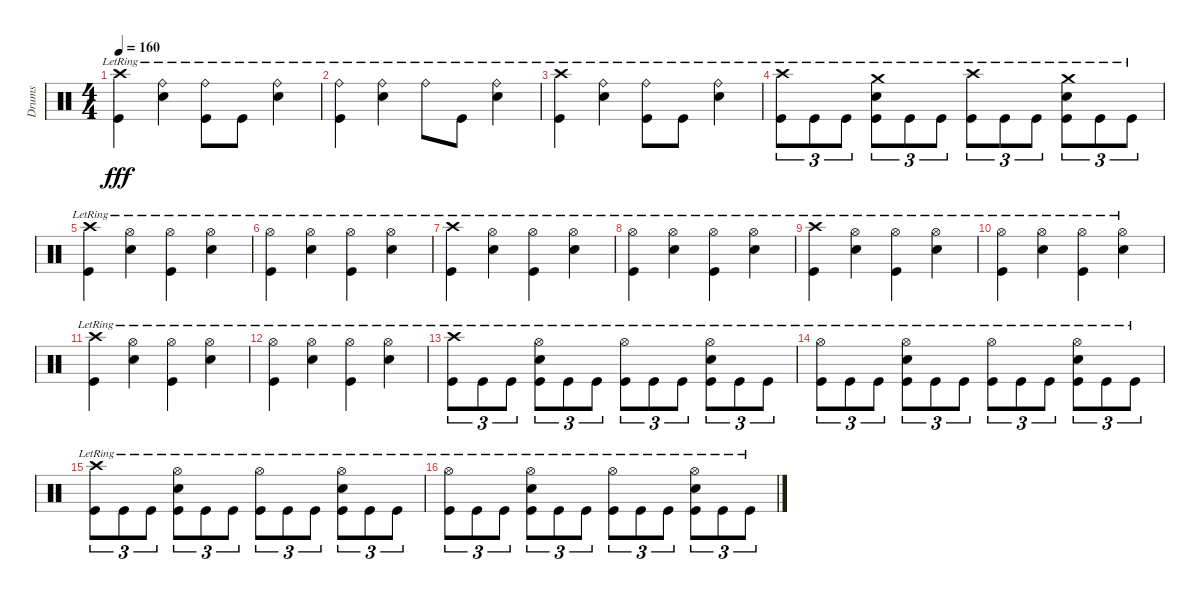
\track ("Drums" "Drums") {instrument percussion}
\staff {score}
\articulation defaults
\ts (4 4)
\tempo 160
\clef neutral
\ks c
("Crash high (hit)"{lr} "Kick (hit)"{lr}).4{dy fff} ("Ride (bell)"{lr} "Snare (hit) 2"{lr}).4 ("Ride (bell)"{lr} "Kick (hit)"{lr}).8 "Kick (hit)"{lr}.8 ("Ride (bell)"{lr} "Snare (hit) 2"{lr}).4 |
("Ride (bell)"{lr} "Kick (hit)"{lr}).4 ("Ride (bell)"{lr} "Snare (hit) 2"{lr}).4 "Ride (bell)"{lr}.8 "Kick (hit)"{lr}.8 ("Ride (bell)"{lr} "Snare (hit) 2"{lr}).4 |
("Crash high (hit)"{lr} "Kick (hit)"{lr}).4 ("Ride (bell)"{lr} "Snare (hit) 2"{lr}).4 ("Ride (bell)"{lr} "Kick (hit)"{lr}).8 "Kick (hit)"{lr}.8 ("Ride (bell)"{lr} "Snare (hit) 2"{lr}).4 |
("Crash high (hit)"{lr} "Kick (hit)"{lr}).8{tu (3 2)} "Kick (hit)"{lr}.8{tu (3 2)} "Kick (hit)"{lr}.8{tu (3 2)} ("Crash medium (hit)"{lr} "Snare (hit) 2"{lr} "Kick (hit)"{lr}).8{tu (3 2)} "Kick (hit)"{lr}.8{tu (3 2)} "Kick (hit)"{lr}.8{tu (3 2)} ("Crash high (hit)"{lr} "Kick (hit)"{lr}).8{tu (3 2)} "Kick (hit)"{lr}.8{tu (3 2)} "Kick (hit)"{lr}.8{tu (3 2)} ("Crash medium (hit)"{lr} "Snare (hit) 2"{lr} "Kick (hit)"{lr}).8{tu (3 2)} "Kick (hit)"{lr}.8{tu (3 2)} "Kick (hit)"{lr}.8{tu (3 2)} |
("Crash high (hit)"{lr} "Kick (hit)"{lr}).4 ("Hi-Hat (open)"{lr} "Snare (hit) 2"{lr}).4 ("Hi-Hat (open)"{lr} "Kick (hit)"{lr}).4 ("Hi-Hat (open)"{lr} "Snare (hit) 2"{lr}).4 |
("Hi-Hat (open)"{lr} "Kick (hit)"{lr}).4 ("Hi-Hat (open)"{lr} "Snare (hit) 2"{lr}).4 ("Hi-Hat (open)"{lr} "Kick (hit)"{lr}).4 ("Hi-Hat (open)"{lr} "Snare (hit) 2"{lr}).4 |
("Crash high (hit)"{lr} "Kick (hit)"{lr}).4 ("Hi-Hat (open)"{lr} "Snare (hit) 2"{lr}).4 ("Hi-Hat (open)"{lr} "Kick (hit)"{lr}).4 ("Hi-Hat (open)"{lr} "Snare (hit) 2"{lr}).4 |
("Hi-Hat (open)"{lr} "Kick (hit)"{lr}).4 ("Hi-Hat (open)"{lr} "Snare (hit) 2"{lr}).4 ("Hi-Hat (open)"{lr} "Kick (hit)"{lr}).4 ("Hi-Hat (open)"{lr} "Snare (hit) 2"{lr}).4 |
("Crash high (hit)"{lr} "Kick (hit)"{lr}).4 ("Hi-Hat (open)"{lr} "Snare (hit) 2"{lr}).4 ("Hi-Hat (open)"{lr} "Kick (hit)"{lr}).4 ("Hi-Hat (open)"{lr} "Snare (hit) 2"{lr}).4 |
("Hi-Hat (open)"{lr} "Kick (hit)"{lr}).4 ("Hi-Hat (open)"{lr} "Snare (hit) 2"{lr}).4 ("Hi-Hat (open)"{lr} "Kick (hit)"{lr}).4 ("Hi-Hat (open)"{lr} "Snare (hit) 2"{lr}).4 |
("Crash high (hit)"{lr} "Kick (hit)"{lr}).4 ("Hi-Hat (open)"{lr} "Snare (hit) 2"{lr}).4 ("Hi-Hat (open)"{lr} "Kick (hit)"{lr}).4 ("Hi-Hat (open)"{lr} "Snare (hit) 2"{lr}).4 |
("Hi-Hat (open)"{lr} "Kick (hit)"{lr}).4 ("Hi-Hat (open)"{lr} "Snare (hit) 2"{lr}).4 ("Hi-Hat (open)"{lr} "Kick (hit)"{lr}).4 ("Hi-Hat (open)"{lr} "Snare (hit) 2"{lr}).4 |
("Crash high (hit)"{lr} "Kick (hit)"{lr}).8{tu (3 2)} "Kick (hit)"{lr}.8{tu (3 2)} "Kick (hit)"{lr}.8{tu (3 2)} ("Hi-Hat (open)"{lr} "Snare (hit) 2"{lr} "Kick (hit)"{lr}).8{tu (3 2)} "Kick (hit)"{lr}.8{tu (3 2)} "Kick (hit)"{lr}.8{tu (3 2)} ("Hi-Hat (open)"{lr} "Kick (hit)"{lr}).8{tu (3 2)} "Kick (hit)"{lr}.8{tu (3 2)} "Kick (hit)"{lr}.8{tu (3 2)} ("Hi-Hat (open)"{lr} "Snare (hit) 2"{lr} "Kick (hit)"{lr}).8{tu (3 2)} "Kick (hit)"{lr}.8{tu (3 2)} "Kick (hit)"{lr}.8{tu (3 2)} |
("Hi-Hat (open)"{lr} "Kick (hit)"{lr}).8{tu (3 2)} "Kick (hit)"{lr}.8{tu (3 2)} "Kick (hit)"{lr}.8{tu (3 2)} ("Hi-Hat (open)"{lr} "Snare (hit) 2"{lr} "Kick (hit)"{lr}).8{tu (3 2)} "Kick (hit)"{lr}.8{tu (3 2)} "Kick (hit)"{lr}.8{tu (3 2)} ("Hi-Hat (open)"{lr} "Kick (hit)"{lr}).8{tu (3 2)} "Kick (hit)"{lr}.8{tu (3 2)} "Kick (hit)"{lr}.8{tu (3 2)} ("Hi-Hat (open)"{lr} "Snare (hit) 2"{lr} "Kick (hit)"{lr}).8{tu (3 2)} "Kick (hit)"{lr}.8{tu (3 2)} "Kick (hit)"{lr}.8{tu (3 2)} |
("Crash high (hit)"{lr} "Kick (hit)"{lr}).8{tu (3 2)} "Kick (hit)"{lr}.8{tu (3 2)} "Kick (hit)"{lr}.8{tu (3 2)} ("Hi-Hat (open)"{lr} "Snare (hit) 2"{lr} "Kick (hit)"{lr}).8{tu (3 2)} "Kick (hit)"{lr}.8{tu (3 2)} "Kick (hit)"{lr}.8{tu (3 2)} ("Hi-Hat (open)"{lr} "Kick (hit)"{lr}).8{tu (3 2)} "Kick (hit)"{lr}.8{tu (3 2)} "Kick (hit)"{lr}.8{tu (3 2)} ("Hi-Hat (open)"{lr} "Snare (hit) 2"{lr} "Kick (hit)"{lr}).8{tu (3 2)} "Kick (hit)"{lr}.8{tu (3 2)} "Kick (hit)"{lr}.8{tu (3 2)} |
("Hi-Hat (open)"{lr} "Kick (hit)"{lr}).8{tu (3 2)} "Kick (hit)"{lr}.8{tu (3 2)} "Kick (hit)"{lr}.8{tu (3 2)} ("Hi-Hat (open)"{lr} "Snare (hit) 2"{lr} "Kick (hit)"{lr}).8{tu (3 2)} "Kick (hit)"{lr}.8{tu (3 2)} "Kick (hit)"{lr}.8{tu (3 2)} ("Hi-Hat (open)"{lr} "Kick (hit)"{lr}).8{tu (3 2)} "Kick (hit)"{lr}.8{tu (3 2)} "Kick (hit)"{lr}.8{tu (3 2)} ("Hi-Hat (open)"{lr} "Snare (hit) 2"{lr} "Kick (hit)"{lr}).8{tu (3 2)} "Kick (hit)"{lr}.8{tu (3 2)} "Kick (hit)"{lr}.8{tu (3 2)}
